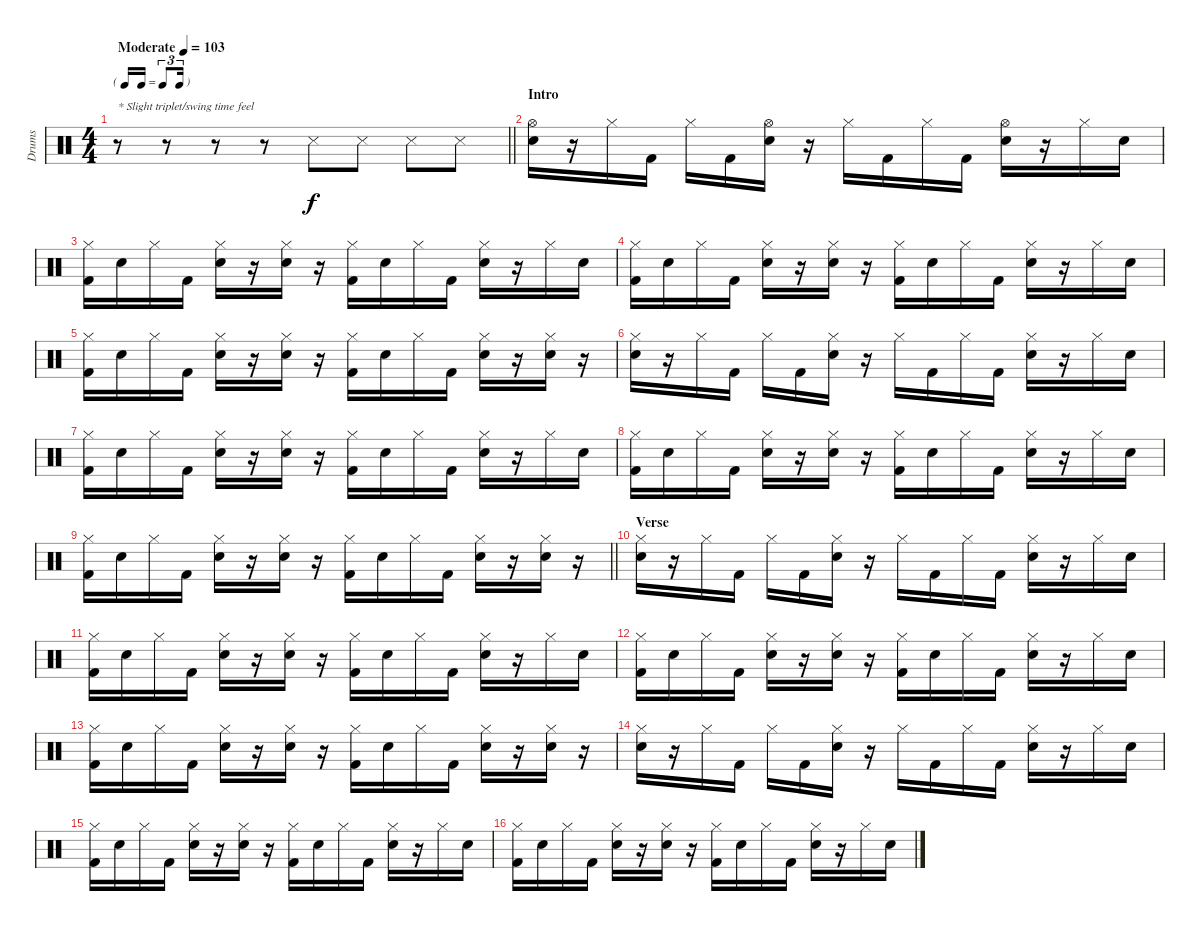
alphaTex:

\track ("Drums" "Drums") {instrument percussion}
\staff {score}
\articulation defaults
\ts (4 4)
\tf triplet16th
\tempo (103 "Moderate")
\clef neutral
\barLineRight lightlight
\ks c
r.8{txt "* Slight triplet/swing time feel" dy f} r.8 r.8 r.8 "Snare (side stick) 3".8 "Snare (side stick) 3".8 "Snare (side stick) 3".8 "Snare (side stick) 3".8 |
\section ("" "Intro")
("Hi-Hat (open)" "Electric Snare (hit)").16 r.16 "Hi-Hat (closed)".16 "Kick (hit) 2".16 "Hi-Hat (closed)".16 "Kick (hit) 2".16 ("Hi-Hat (open)" "Electric Snare (hit)").16 r.16 "Hi-Hat (closed)".16 "Kick (hit) 2".16 "Hi-Hat (closed)".16 "Kick (hit) 2".16 ("Hi-Hat (open)" "Electric Snare (hit)").16 r.16 "Hi-Hat (closed)".16 "Electric Snare (hit)".16 |
("Hi-Hat (closed)" "Kick (hit) 2").16 "Electric Snare (hit)".16 "Hi-Hat (closed)".16 "Kick (hit) 2".16 ("Hi-Hat (closed)" "Electric Snare (hit)").16 r.16 ("Hi-Hat (closed)" "Electric Snare (hit)").16 r.16 ("Hi-Hat (closed)" "Kick (hit) 2").16 "Electric Snare (hit)".16 "Hi-Hat (closed)".16 "Kick (hit) 2".16 ("Hi-Hat (closed)" "Electric Snare (hit)").16 r.16 "Hi-Hat (closed)".16 "Electric Snare (hit)".16 |
("Hi-Hat (closed)" "Kick (hit) 2").16 "Electric Snare (hit)".16 "Hi-Hat (closed)".16 "Kick (hit) 2".16 ("Hi-Hat (closed)" "Electric Snare (hit)").16 r.16 ("Hi-Hat (closed)" "Electric Snare (hit)").16 r.16 ("Hi-Hat (closed)" "Kick (hit) 2").16 "Electric Snare (hit)".16 "Hi-Hat (closed)".16 "Kick (hit) 2".16 ("Hi-Hat (closed)" "Electric Snare (hit)").16 r.16 "Hi-Hat (closed)".16 "Electric Snare (hit)".16 |
("Hi-Hat (closed)" "Kick (hit) 2").16 "Electric Snare (hit)".16 "Hi-Hat (closed)".16 "Kick (hit) 2".16 ("Hi-Hat (closed)" "Electric Snare (hit)").16 r.16 ("Hi-Hat (closed)" "Electric Snare (hit)").16 r.16 ("Hi-Hat (closed)" "Kick (hit) 2").16 "Electric Snare (hit)".16 "Hi-Hat (closed)".16 "Kick (hit) 2".16 ("Hi-Hat (closed)" "Electric Snare (hit)").16 r.16 ("Hi-Hat (closed)" "Electric Snare (hit)").16 r.16 |
("Hi-Hat (closed)" "Electric Snare (hit)").16 r.16 "Hi-Hat (closed)".16 "Kick (hit) 2".16 "Hi-Hat (closed)".16 "Kick (hit) 2".16 ("Hi-Hat (closed)" "Electric Snare (hit)").16 r.16 "Hi-Hat (closed)".16 "Kick (hit) 2".16 "Hi-Hat (closed)".16 "Kick (hit) 2".16 ("Hi-Hat (closed)" "Electric Snare (hit)").16 r.16 "Hi-Hat (closed)".16 "Electric Snare (hit)".16 |
("Hi-Hat (closed)" "Kick (hit) 2").16 "Electric Snare (hit)".16 "Hi-Hat (closed)".16 "Kick (hit) 2".16 ("Hi-Hat (closed)" "Electric Snare (hit)").16 r.16 ("Hi-Hat (closed)" "Electric Snare (hit)").16 r.16 ("Hi-Hat (closed)" "Kick (hit) 2").16 "Electric Snare (hit)".16 "Hi-Hat (closed)".16 "Kick (hit) 2".16 ("Hi-Hat (closed)" "Electric Snare (hit)").16 r.16 "Hi-Hat (closed)".16 "Electric Snare (hit)".16 |
("Hi-Hat (closed)" "Kick (hit) 2").16 "Electric Snare (hit)".16 "Hi-Hat (closed)".16 "Kick (hit) 2".16 ("Hi-Hat (closed)" "Electric Snare (hit)").16 r.16 ("Hi-Hat (closed)" "Electric Snare (hit)").16 r.16 ("Hi-Hat (closed)" "Kick (hit) 2").16 "Electric Snare (hit)".16 "Hi-Hat (closed)".16 "Kick (hit) 2".16 ("Hi-Hat (closed)" "Electric Snare (hit)").16 r.16 "Hi-Hat (closed)".16 "Electric Snare (hit)".16 |
\barLineRight lightlight
("Hi-Hat (closed)" "Kick (hit) 2").16 "Electric Snare (hit)".16 "Hi-Hat (closed)".16 "Kick (hit) 2".16 ("Hi-Hat (closed)" "Electric Snare (hit)").16 r.16 ("Hi-Hat (closed)" "Electric Snare (hit)").16 r.16 ("Hi-Hat (closed)" "Kick (hit) 2").16 "Electric Snare (hit)".16 "Hi-Hat (closed)".16 "Kick (hit) 2".16 ("Hi-Hat (closed)" "Electric Snare (hit)").16 r.16 ("Hi-Hat (closed)" "Electric Snare (hit)").16 r.16 |
\section ("" "Verse")
("Hi-Hat (closed)" "Electric Snare (hit)").16 r.16 "Hi-Hat (closed)".16 "Kick (hit) 2".16 "Hi-Hat (closed)".16 "Kick (hit) 2".16 ("Hi-Hat (closed)" "Electric Snare (hit)").16 r.16 "Hi-Hat (closed)".16 "Kick (hit) 2".16 "Hi-Hat (closed)".16 "Kick (hit) 2".16 ("Hi-Hat (closed)" "Electric Snare (hit)").16 r.16 "Hi-Hat (closed)".16 "Electric Snare (hit)".16 |
("Hi-Hat (closed)" "Kick (hit) 2").16 "Electric Snare (hit)".16 "Hi-Hat (closed)".16 "Kick (hit) 2".16 ("Hi-Hat (closed)" "Electric Snare (hit)").16 r.16 ("Hi-Hat (closed)" "Electric Snare (hit)").16 r.16 ("Hi-Hat (closed)" "Kick (hit) 2").16 "Electric Snare (hit)".16 "Hi-Hat (closed)".16 "Kick (hit) 2".16 ("Hi-Hat (closed)" "Electric Snare (hit)").16 r.16 "Hi-Hat (closed)".16 "Electric Snare (hit)".16 |
("Hi-Hat (closed)" "Kick (hit) 2").16 "Electric Snare (hit)".16 "Hi-Hat (closed)".16 "Kick (hit) 2".16 ("Hi-Hat (closed)" "Electric Snare (hit)").16 r.16 ("Hi-Hat (closed)" "Electric Snare (hit)").16 r.16 ("Hi-Hat (closed)" "Kick (hit) 2").16 "Electric Snare (hit)".16 "Hi-Hat (closed)".16 "Kick (hit) 2".16 ("Hi-Hat (closed)" "Electric Snare (hit)").16 r.16 "Hi-Hat (closed)".16 "Electric Snare (hit)".16 |
("Hi-Hat (closed)" "Kick (hit) 2").16 "Electric Snare (hit)".16 "Hi-Hat (closed)".16 "Kick (hit) 2".16 ("Hi-Hat (closed)" "Electric Snare (hit)").16 r.16 ("Hi-Hat (closed)" "Electric Snare (hit)").16 r.16 ("Hi-Hat (closed)" "Kick (hit) 2").16 "Electric Snare (hit)".16 "Hi-Hat (closed)".16 "Kick (hit) 2".16 ("Hi-Hat (closed)" "Electric Snare (hit)").16 r.16 ("Hi-Hat (closed)" "Electric Snare (hit)").16 r.16 |
("Hi-Hat (closed)" "Electric Snare (hit)").16 r.16 "Hi-Hat (closed)".16 "Kick (hit) 2".16 "Hi-Hat (closed)".16 "Kick (hit) 2".16 ("Hi-Hat (closed)" "Electric Snare (hit)").16 r.16 "Hi-Hat (closed)".16 "Kick (hit) 2".16 "Hi-Hat (closed)".16 "Kick (hit) 2".16 ("Hi-Hat (closed)" "Electric Snare (hit)").16 r.16 "Hi-Hat (closed)".16 "Electric Snare (hit)".16 |
("Hi-Hat (closed)" "Kick (hit) 2").16 "Electric Snare (hit)".16 "Hi-Hat (closed)".16 "Kick (hit) 2".16 ("Hi-Hat (closed)" "Electric Snare (hit)").16 r.16 ("Hi-Hat (closed)" "Electric Snare (hit)").16 r.16 ("Hi-Hat (closed)" "Kick (hit) 2").16 "Electric Snare (hit)".16 "Hi-Hat (closed)".16 "Kick (hit) 2".16 ("Hi-Hat (closed)" "Electric Snare (hit)").16 r.16 "Hi-Hat (closed)".16 "Electric Snare (hit)".16 |
("Hi-Hat (closed)" "Kick (hit) 2").16 "Electric Snare (hit)".16 "Hi-Hat (closed)".16 "Kick (hit) 2".16 ("Hi-Hat (closed)" "Electric Snare (hit)").16 r.16 ("Hi-Hat (closed)" "Electric Snare (hit)").16 r.16 ("Hi-Hat (closed)" "Kick (hit) 2").16 "Electric Snare (hit)".16 "Hi-Hat (closed)".16 "Kick (hit) 2".16 ("Hi-Hat (closed)" "Electric Snare (hit)").16 r.16 "Hi-Hat (closed)".16 "Electric Snare (hit)".16
